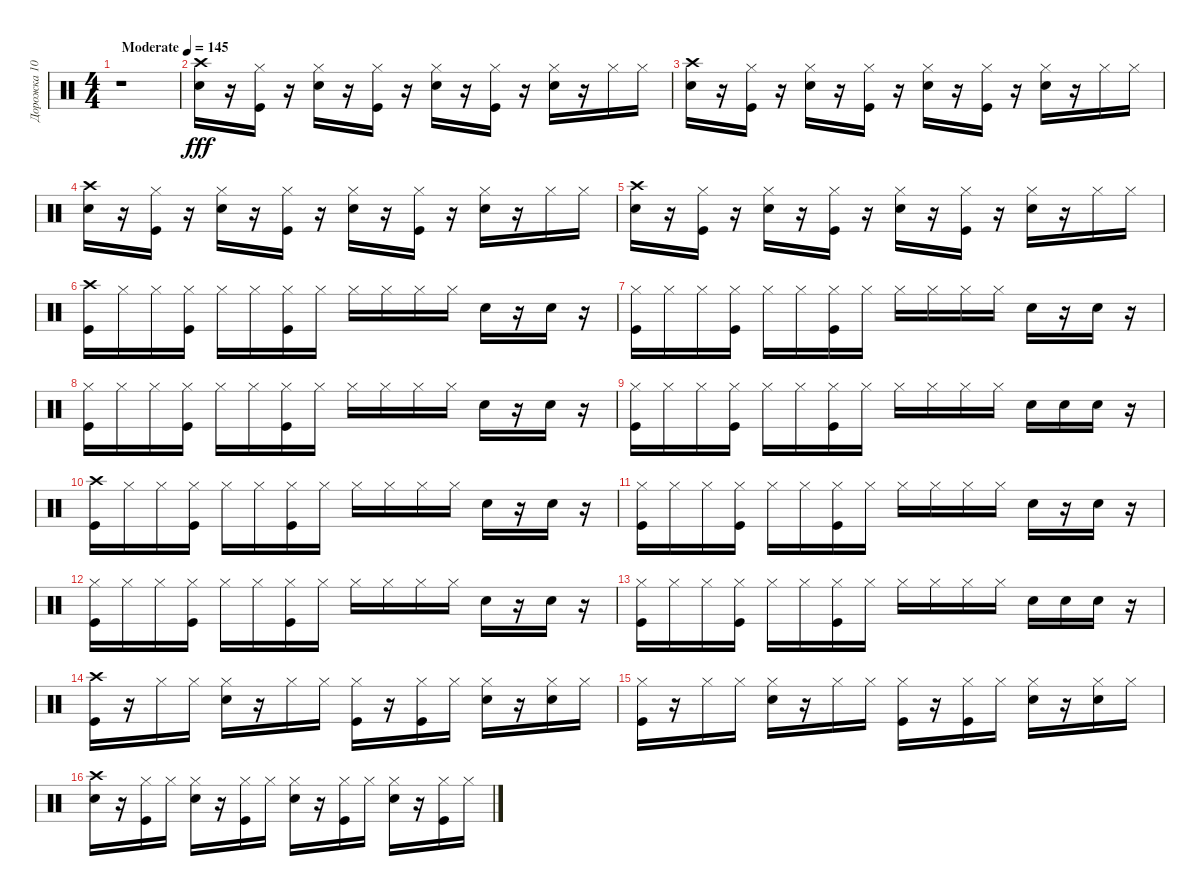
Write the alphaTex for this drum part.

\track ("Дорожка 10" "Дорожка 10") {instrument percussion}
\staff {score}
\articulation defaults
\ts (4 4)
\tempo (145 "Moderate")
\clef neutral
\ks c
r.1{dy fff} |
("Crash high (hit)" "Electric Snare (hit)").16 r.16 ("Hi-Hat (closed)" "Kick (hit)").16 r.16 ("Hi-Hat (closed)" "Electric Snare (hit)").16 r.16 ("Kick (hit)" "Hi-Hat (closed)").16 r.16 ("Electric Snare (hit)" "Hi-Hat (closed)").16 r.16 ("Kick (hit)" "Hi-Hat (closed)").16 r.16 ("Hi-Hat (closed)" "Electric Snare (hit)").16 r.16 "Hi-Hat (closed)".16 "Hi-Hat (closed)".16 |
("Electric Snare (hit)" "Crash high (hit)").16 r.16 ("Kick (hit)" "Hi-Hat (closed)").16 r.16 ("Electric Snare (hit)" "Hi-Hat (closed)").16 r.16 ("Hi-Hat (closed)" "Kick (hit)").16 r.16 ("Electric Snare (hit)" "Hi-Hat (closed)").16 r.16 ("Hi-Hat (closed)" "Kick (hit)").16 r.16 ("Electric Snare (hit)" "Hi-Hat (closed)").16 r.16 "Hi-Hat (closed)".16 "Hi-Hat (closed)".16 |
("Electric Snare (hit)" "Crash high (hit)").16 r.16 ("Kick (hit)" "Hi-Hat (closed)").16 r.16 ("Electric Snare (hit)" "Hi-Hat (closed)").16 r.16 ("Kick (hit)" "Hi-Hat (closed)").16 r.16 ("Hi-Hat (closed)" "Electric Snare (hit)").16 r.16 ("Kick (hit)" "Hi-Hat (closed)").16 r.16 ("Electric Snare (hit)" "Hi-Hat (closed)").16 r.16 "Hi-Hat (closed)".16 "Hi-Hat (closed)".16 |
("Electric Snare (hit)" "Crash high (hit)").16 r.16 ("Kick (hit)" "Hi-Hat (closed)").16 r.16 ("Electric Snare (hit)" "Hi-Hat (closed)").16 r.16 ("Hi-Hat (closed)" "Kick (hit)").16 r.16 ("Hi-Hat (closed)" "Electric Snare (hit)").16 r.16 ("Kick (hit)" "Hi-Hat (closed)").16 r.16 ("Hi-Hat (closed)" "Electric Snare (hit)").16 r.16 "Hi-Hat (closed)".16 "Hi-Hat (closed)".16 |
("Crash high (hit)" "Kick (hit)").16 "Hi-Hat (closed)".16 "Hi-Hat (closed)".16 ("Kick (hit)" "Hi-Hat (closed)").16 "Hi-Hat (closed)".16 "Hi-Hat (closed)".16 ("Hi-Hat (closed)" "Kick (hit)").16 "Hi-Hat (closed)".16 "Hi-Hat (closed)".16 "Hi-Hat (closed)".16 "Hi-Hat (closed)".16 "Hi-Hat (closed)".16 "Electric Snare (hit)".16 r.16 "Electric Snare (hit)".16 r.16 |
("Kick (hit)" "Hi-Hat (closed)").16 "Hi-Hat (closed)".16 "Hi-Hat (closed)".16 ("Hi-Hat (closed)" "Kick (hit)").16 "Hi-Hat (closed)".16 "Hi-Hat (closed)".16 ("Kick (hit)" "Hi-Hat (closed)").16 "Hi-Hat (closed)".16 "Hi-Hat (closed)".16 "Hi-Hat (closed)".16 "Hi-Hat (closed)".16 "Hi-Hat (closed)".16 "Electric Snare (hit)".16 r.16 "Electric Snare (hit)".16 r.16 |
("Kick (hit)" "Hi-Hat (closed)").16 "Hi-Hat (closed)".16 "Hi-Hat (closed)".16 ("Hi-Hat (closed)" "Kick (hit)").16 "Hi-Hat (closed)".16 "Hi-Hat (closed)".16 ("Hi-Hat (closed)" "Kick (hit)").16 "Hi-Hat (closed)".16 "Hi-Hat (closed)".16 "Hi-Hat (closed)".16 "Hi-Hat (closed)".16 "Hi-Hat (closed)".16 "Electric Snare (hit)".16 r.16 "Electric Snare (hit)".16 r.16 |
("Kick (hit)" "Hi-Hat (closed)").16 "Hi-Hat (closed)".16 "Hi-Hat (closed)".16 ("Hi-Hat (closed)" "Kick (hit)").16 "Hi-Hat (closed)".16 "Hi-Hat (closed)".16 ("Hi-Hat (closed)" "Kick (hit)").16 "Hi-Hat (closed)".16 "Hi-Hat (closed)".16 "Hi-Hat (closed)".16 "Hi-Hat (closed)".16 "Hi-Hat (closed)".16 "Electric Snare (hit)".16 "Electric Snare (hit)".16 "Electric Snare (hit)".16 r.16 |
("Crash high (hit)" "Kick (hit)").16 "Hi-Hat (closed)".16 "Hi-Hat (closed)".16 ("Hi-Hat (closed)" "Kick (hit)").16 "Hi-Hat (closed)".16 "Hi-Hat (closed)".16 ("Hi-Hat (closed)" "Kick (hit)").16 "Hi-Hat (closed)".16 "Hi-Hat (closed)".16 "Hi-Hat (closed)".16 "Hi-Hat (closed)".16 "Hi-Hat (closed)".16 "Electric Snare (hit)".16 r.16 "Electric Snare (hit)".16 r.16 |
("Hi-Hat (closed)" "Kick (hit)").16 "Hi-Hat (closed)".16 "Hi-Hat (closed)".16 ("Hi-Hat (closed)" "Kick (hit)").16 "Hi-Hat (closed)".16 "Hi-Hat (closed)".16 ("Kick (hit)" "Hi-Hat (closed)").16 "Hi-Hat (closed)".16 "Hi-Hat (closed)".16 "Hi-Hat (closed)".16 "Hi-Hat (closed)".16 "Hi-Hat (closed)".16 "Electric Snare (hit)".16 r.16 "Electric Snare (hit)".16 r.16 |
("Hi-Hat (closed)" "Kick (hit)").16 "Hi-Hat (closed)".16 "Hi-Hat (closed)".16 ("Hi-Hat (closed)" "Kick (hit)").16 "Hi-Hat (closed)".16 "Hi-Hat (closed)".16 ("Hi-Hat (closed)" "Kick (hit)").16 "Hi-Hat (closed)".16 "Hi-Hat (closed)".16 "Hi-Hat (closed)".16 "Hi-Hat (closed)".16 "Hi-Hat (closed)".16 "Electric Snare (hit)".16 r.16 "Electric Snare (hit)".16 r.16 |
("Kick (hit)" "Hi-Hat (closed)").16 "Hi-Hat (closed)".16 "Hi-Hat (closed)".16 ("Hi-Hat (closed)" "Kick (hit)").16 "Hi-Hat (closed)".16 "Hi-Hat (closed)".16 ("Hi-Hat (closed)" "Kick (hit)").16 "Hi-Hat (closed)".16 "Hi-Hat (closed)".16 "Hi-Hat (closed)".16 "Hi-Hat (closed)".16 "Hi-Hat (closed)".16 "Electric Snare (hit)".16 "Electric Snare (hit)".16 "Electric Snare (hit)".16 r.16 |
("Crash high (hit)" "Kick (hit)").16 r.16 "Hi-Hat (closed)".16 "Hi-Hat (closed)".16 ("Electric Snare (hit)" "Hi-Hat (closed)").16 r.16 "Hi-Hat (closed)".16 "Hi-Hat (closed)".16 ("Hi-Hat (closed)" "Kick (hit)").16 r.16 ("Hi-Hat (closed)" "Kick (hit)").16 "Hi-Hat (closed)".16 ("Electric Snare (hit)" "Hi-Hat (closed)").16 r.16 ("Electric Snare (hit)" "Hi-Hat (closed)").16 "Hi-Hat (closed)".16 |
("Hi-Hat (closed)" "Kick (hit)").16 r.16 "Hi-Hat (closed)".16 "Hi-Hat (closed)".16 ("Hi-Hat (closed)" "Electric Snare (hit)").16 r.16 "Hi-Hat (closed)".16 "Hi-Hat (closed)".16 ("Hi-Hat (closed)" "Kick (hit)").16 r.16 ("Hi-Hat (closed)" "Kick (hit)").16 "Hi-Hat (closed)".16 ("Electric Snare (hit)" "Hi-Hat (closed)").16 r.16 ("Hi-Hat (closed)" "Electric Snare (hit)").16 "Hi-Hat (closed)".16 |
("Crash high (hit)" "Electric Snare (hit)").16 r.16 ("Hi-Hat (closed)" "Kick (hit)").16 "Hi-Hat (closed)".16 ("Electric Snare (hit)" "Hi-Hat (closed)").16 r.16 ("Kick (hit)" "Hi-Hat (closed)").16 "Hi-Hat (closed)".16 ("Electric Snare (hit)" "Hi-Hat (closed)").16 r.16 ("Hi-Hat (closed)" "Kick (hit)").16 "Hi-Hat (closed)".16 ("Hi-Hat (closed)" "Electric Snare (hit)").16 r.16 ("Kick (hit)" "Hi-Hat (closed)").16 "Hi-Hat (closed)".16
